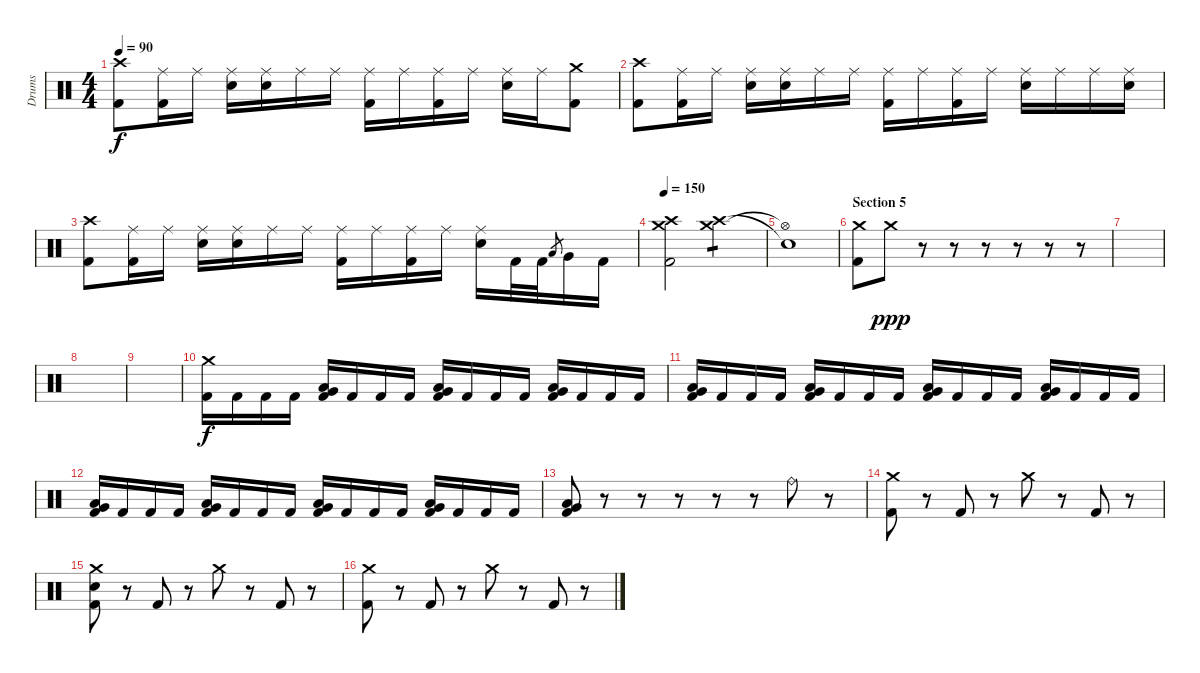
\track ("Drums" "Drums") {instrument percussion}
\staff {score}
\articulation defaults
\ts (4 4)
\tempo 90
\clef neutral
\ks c
("Crash high (hit)" "Kick (hit) 2").8{dy f} ("Ride (middle)" "Kick (hit) 2").16 "Ride (middle)".16 ("Ride (middle)" "Electric Snare (hit)").16 ("Ride (middle)" "Electric Snare (hit)").16 "Ride (middle)".16 "Ride (middle)".16 ("Ride (middle)" "Kick (hit) 2").16 "Ride (middle)".16 ("Ride (middle)" "Kick (hit) 2").16 "Ride (middle)".16 ("Ride (middle)" "Electric Snare (hit)").16 "Ride (middle)".16 ("Crash medium (hit)" "Kick (hit) 2").8 |
("Crash high (hit)" "Kick (hit) 2").8 ("Ride (middle)" "Kick (hit) 2").16 "Ride (middle)".16 ("Ride (middle)" "Electric Snare (hit)").16 ("Ride (middle)" "Electric Snare (hit)").16 "Ride (middle)".16 "Ride (middle)".16 ("Ride (middle)" "Kick (hit) 2").16 "Ride (middle)".16 ("Ride (middle)" "Kick (hit) 2").16 "Ride (middle)".16 ("Ride (middle)" "Electric Snare (hit)").16 "Ride (middle)".16 "Ride (middle)".16 ("Ride (middle)" "Electric Snare (hit)").16 |
("Crash high (hit)" "Kick (hit) 2").8 ("Ride (middle)" "Kick (hit) 2").16 "Ride (middle)".16 ("Ride (middle)" "Electric Snare (hit)").16 ("Ride (middle)" "Electric Snare (hit)").16 "Ride (middle)".16 "Ride (middle)".16 ("Ride (middle)" "Kick (hit) 2").16 "Ride (middle)".16 ("Ride (middle)" "Kick (hit) 2").16 "Ride (middle)".16 ("Ride (middle)" "Electric Snare (hit)").16 "Kick (hit) 2".32 "Kick (hit) 2".32 "Low Tom (hit)".8{gr} "Very Low Tom (hit)".16 "Kick (hit) 2".16 |
\tempo 150
("Crash medium (hit)" "Crash high (hit)" "Kick (hit) 2").2 ("Crash high (hit)" "Crash medium (hit)").2{tp 1} |
("Snare (hit)"{t} "Hi-Hat (open)"{t}).1 |
\section ("" "Section 5")
("Crash medium (hit)" "Kick (hit) 2").8 "Crash medium (hit)".8{dy ppp} r.8 r.8 r.8 r.8 r.8 r.8 |
|
|
|
("Crash medium (hit)" "Kick (hit) 2").16{dy f} "Kick (hit) 2".16 "Kick (hit) 2".16 "Kick (hit) 2".16 ("Low Tom (hit)" "Very Low Tom (hit)" "Kick (hit) 2").16 "Kick (hit) 2".16 "Kick (hit) 2".16 "Kick (hit) 2".16 ("Low Tom (hit)" "Very Low Tom (hit)" "Kick (hit) 2").16 "Kick (hit) 2".16 "Kick (hit) 2".16 "Kick (hit) 2".16 ("Low Tom (hit)" "Very Low Tom (hit)" "Kick (hit) 2").16 "Kick (hit) 2".16 "Kick (hit) 2".16 "Kick (hit) 2".16 |
("Low Tom (hit)" "Very Low Tom (hit)" "Kick (hit) 2").16 "Kick (hit) 2".16 "Kick (hit) 2".16 "Kick (hit) 2".16 ("Low Tom (hit)" "Very Low Tom (hit)" "Kick (hit) 2").16 "Kick (hit) 2".16 "Kick (hit) 2".16 "Kick (hit) 2".16 ("Low Tom (hit)" "Very Low Tom (hit)" "Kick (hit) 2").16 "Kick (hit) 2".16 "Kick (hit) 2".16 "Kick (hit) 2".16 ("Low Tom (hit)" "Very Low Tom (hit)" "Kick (hit) 2").16 "Kick (hit) 2".16 "Kick (hit) 2".16 "Kick (hit) 2".16 |
("Low Tom (hit)" "Very Low Tom (hit)" "Kick (hit) 2").16 "Kick (hit) 2".16 "Kick (hit) 2".16 "Kick (hit) 2".16 ("Low Tom (hit)" "Very Low Tom (hit)" "Kick (hit) 2").16 "Kick (hit) 2".16 "Kick (hit) 2".16 "Kick (hit) 2".16 ("Low Tom (hit)" "Very Low Tom (hit)" "Kick (hit) 2").16 "Kick (hit) 2".16 "Kick (hit) 2".16 "Kick (hit) 2".16 ("Low Tom (hit)" "Very Low Tom (hit)" "Kick (hit) 2").16 "Kick (hit) 2".16 "Kick (hit) 2".16 "Kick (hit) 2".16 |
("Very Low Tom (hit)" "Low Floor Tom (hit)" "Kick (hit) 2").8 r.8 r.8 r.8 r.8 r.8 "Ride (bell)".8 r.8 |
("Crash medium (hit)" "Kick (hit) 2").8 r.8 "Kick (hit) 2".8 r.8 "Crash medium (hit)".8 r.8 "Kick (hit) 2".8 r.8 |
("Crash medium (hit)" "Electric Snare (hit)" "Kick (hit) 2").8 r.8 "Kick (hit) 2".8 r.8 "Crash medium (hit)".8 r.8 "Kick (hit) 2".8 r.8 |
("Crash medium (hit)" "Kick (hit) 2").8 r.8 "Kick (hit) 2".8 r.8 "Crash medium (hit)".8 r.8 "Kick (hit) 2".8 r.8
